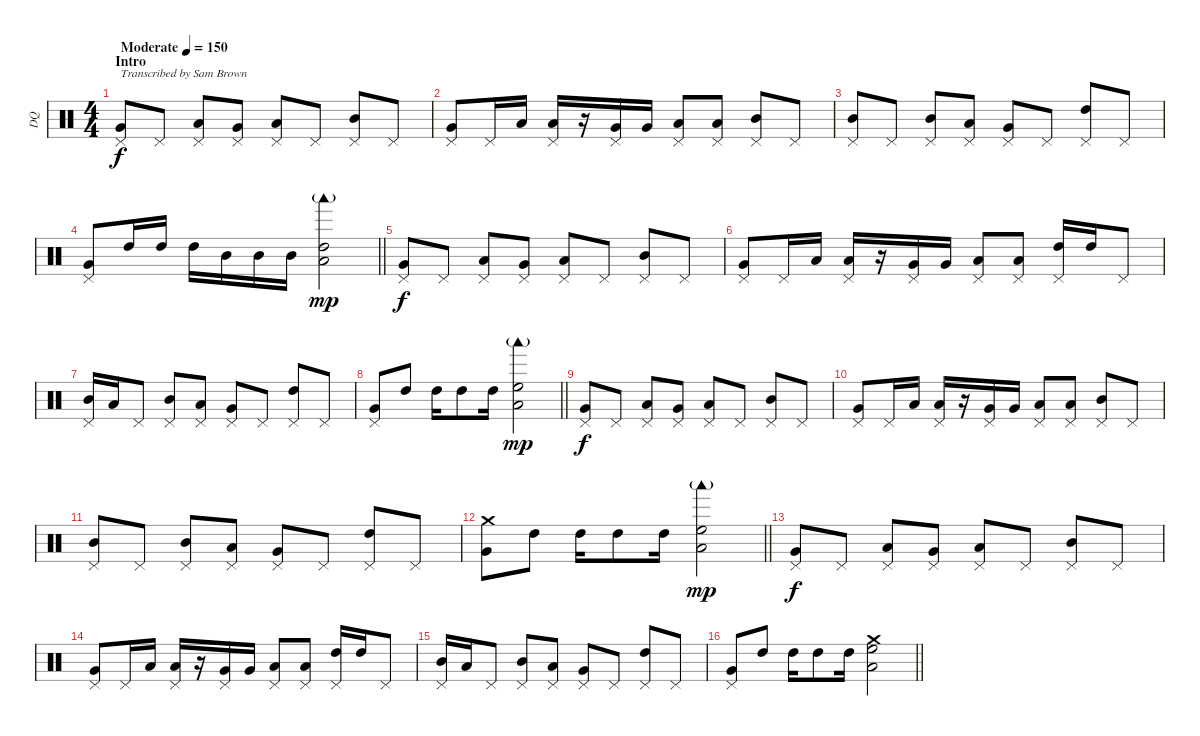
\track ("DQ" "DQ") {instrument percussion}
\staff {score}
\articulation defaults
\ts (4 4)
\section ("" "Intro")
\tempo (150 "Moderate")
\clef neutral
\ks c
("Very Low Tom (hit)" "Pedal Hi-Hat (hit)").8{txt "Transcribed by Sam Brown" dy f} "Pedal Hi-Hat (hit)".8 ("Low Tom (hit)" "Pedal Hi-Hat (hit)").8 ("Very Low Tom (hit)" "Pedal Hi-Hat (hit)").8 ("Low Floor Tom (hit)" "Pedal Hi-Hat (hit)").8 "Pedal Hi-Hat (hit)".8 ("Mid Tom (hit)" "Pedal Hi-Hat (hit)").8 "Pedal Hi-Hat (hit)".8 |
("Very Low Tom (hit)" "Pedal Hi-Hat (hit)").8 "Pedal Hi-Hat (hit)".16 "Low Tom (hit)".16 ("Low Tom (hit)" "Pedal Hi-Hat (hit)").16 r.16 ("Very Low Tom (hit)" "Pedal Hi-Hat (hit)").16 "Very Low Tom (hit)".16 ("Low Floor Tom (hit)" "Pedal Hi-Hat (hit)").8 ("Low Floor Tom (hit)" "Pedal Hi-Hat (hit)").8 ("Mid Tom (hit)" "Pedal Hi-Hat (hit)").8 "Pedal Hi-Hat (hit)".8 |
("Mid Tom (hit)" "Pedal Hi-Hat (hit)").8 "Pedal Hi-Hat (hit)".8 ("Mid Tom (hit)" "Pedal Hi-Hat (hit)").8 ("Low Tom (hit)" "Pedal Hi-Hat (hit)").8 ("Very Low Tom (hit)" "Pedal Hi-Hat (hit)").8 "Pedal Hi-Hat (hit)".8 ("High Tom (hit)" "Pedal Hi-Hat (hit)").8 "Pedal Hi-Hat (hit)".8 |
\barLineRight lightlight
("Very Low Tom (hit)" "Pedal Hi-Hat (hit)").8 "High Tom (hit)".16 "High Tom (hit)".16 "High Tom (hit)".16 "Mid Tom (hit)".16 "Mid Tom (hit)".16 "Mid Tom (hit)".16 ("Low Floor Tom (hit)" "High Tom (hit)" "Woodblock low (hit)"{g}).2{dy mp} |
\section ("" "")
("Very Low Tom (hit)" "Pedal Hi-Hat (hit)").8{dy f} "Pedal Hi-Hat (hit)".8 ("Low Tom (hit)" "Pedal Hi-Hat (hit)").8 ("Very Low Tom (hit)" "Pedal Hi-Hat (hit)").8 ("Low Floor Tom (hit)" "Pedal Hi-Hat (hit)").8 "Pedal Hi-Hat (hit)".8 ("Mid Tom (hit)" "Pedal Hi-Hat (hit)").8 "Pedal Hi-Hat (hit)".8 |
("Very Low Tom (hit)" "Pedal Hi-Hat (hit)").8 "Pedal Hi-Hat (hit)".16 "Low Tom (hit)".16 ("Low Tom (hit)" "Pedal Hi-Hat (hit)").16 r.16 ("Very Low Tom (hit)" "Pedal Hi-Hat (hit)").16 "Very Low Tom (hit)".16 ("Low Floor Tom (hit)" "Pedal Hi-Hat (hit)").8 ("Low Floor Tom (hit)" "Pedal Hi-Hat (hit)").8 ("High Tom (hit)" "Pedal Hi-Hat (hit)").16 "High Tom (hit)".16 "Pedal Hi-Hat (hit)".8 |
("Mid Tom (hit)" "Pedal Hi-Hat (hit)").16 "Low Tom (hit)".16 "Pedal Hi-Hat (hit)".8 ("Mid Tom (hit)" "Pedal Hi-Hat (hit)").8 ("Low Tom (hit)" "Pedal Hi-Hat (hit)").8 ("Very Low Tom (hit)" "Pedal Hi-Hat (hit)").8 "Pedal Hi-Hat (hit)".8 ("High Tom (hit)" "Pedal Hi-Hat (hit)").8 "Pedal Hi-Hat (hit)".8 |
\barLineRight lightlight
("Very Low Tom (hit)" "Pedal Hi-Hat (hit)").8 "High Tom (hit)".8 "High Tom (hit)".16 "High Tom (hit)".8 "High Tom (hit)".16 ("Low Floor Tom (hit)" "High Floor Tom (hit)" "Woodblock low (hit)"{g}).2{dy mp} |
\section ("" "")
("Very Low Tom (hit)" "Pedal Hi-Hat (hit)").8{dy f} "Pedal Hi-Hat (hit)".8 ("Low Tom (hit)" "Pedal Hi-Hat (hit)").8 ("Very Low Tom (hit)" "Pedal Hi-Hat (hit)").8 ("Low Floor Tom (hit)" "Pedal Hi-Hat (hit)").8 "Pedal Hi-Hat (hit)".8 ("Mid Tom (hit)" "Pedal Hi-Hat (hit)").8 "Pedal Hi-Hat (hit)".8 |
("Very Low Tom (hit)" "Pedal Hi-Hat (hit)").8 "Pedal Hi-Hat (hit)".16 "Low Tom (hit)".16 ("Low Tom (hit)" "Pedal Hi-Hat (hit)").16 r.16 ("Very Low Tom (hit)" "Pedal Hi-Hat (hit)").16 "Very Low Tom (hit)".16 ("Low Floor Tom (hit)" "Pedal Hi-Hat (hit)").8 ("Low Floor Tom (hit)" "Pedal Hi-Hat (hit)").8 ("Mid Tom (hit)" "Pedal Hi-Hat (hit)").8 "Pedal Hi-Hat (hit)".8 |
("Mid Tom (hit)" "Pedal Hi-Hat (hit)").8 "Pedal Hi-Hat (hit)".8 ("Mid Tom (hit)" "Pedal Hi-Hat (hit)").8 ("Low Tom (hit)" "Pedal Hi-Hat (hit)").8 ("Very Low Tom (hit)" "Pedal Hi-Hat (hit)").8 "Pedal Hi-Hat (hit)".8 ("High Tom (hit)" "Pedal Hi-Hat (hit)").8 "Pedal Hi-Hat (hit)".8 |
\barLineRight lightlight
("Very Low Tom (hit)" "Crash medium (hit)").8 "High Tom (hit)".8 "High Tom (hit)".16 "High Tom (hit)".8 "High Tom (hit)".16 ("Low Floor Tom (hit)" "High Floor Tom (hit)" "Woodblock low (hit)"{g}).2{dy mp} |
\section ("" "")
("Very Low Tom (hit)" "Pedal Hi-Hat (hit)").8{dy f} "Pedal Hi-Hat (hit)".8 ("Low Tom (hit)" "Pedal Hi-Hat (hit)").8 ("Very Low Tom (hit)" "Pedal Hi-Hat (hit)").8 ("Low Floor Tom (hit)" "Pedal Hi-Hat (hit)").8 "Pedal Hi-Hat (hit)".8 ("Mid Tom (hit)" "Pedal Hi-Hat (hit)").8 "Pedal Hi-Hat (hit)".8 |
("Very Low Tom (hit)" "Pedal Hi-Hat (hit)").8 "Pedal Hi-Hat (hit)".16 "Low Tom (hit)".16 ("Low Tom (hit)" "Pedal Hi-Hat (hit)").16 r.16 ("Very Low Tom (hit)" "Pedal Hi-Hat (hit)").16 "Very Low Tom (hit)".16 ("Low Floor Tom (hit)" "Pedal Hi-Hat (hit)").8 ("Low Floor Tom (hit)" "Pedal Hi-Hat (hit)").8 ("High Tom (hit)" "Pedal Hi-Hat (hit)").16 "High Tom (hit)".16 "Pedal Hi-Hat (hit)".8 |
("Mid Tom (hit)" "Pedal Hi-Hat (hit)").16 "Low Tom (hit)".16 "Pedal Hi-Hat (hit)".8 ("Mid Tom (hit)" "Pedal Hi-Hat (hit)").8 ("Low Tom (hit)" "Pedal Hi-Hat (hit)").8 ("Very Low Tom (hit)" "Pedal Hi-Hat (hit)").8 "Pedal Hi-Hat (hit)".8 ("High Tom (hit)" "Pedal Hi-Hat (hit)").8 "Pedal Hi-Hat (hit)".8 |
\barLineRight lightlight
("Very Low Tom (hit)" "Pedal Hi-Hat (hit)").8 "High Tom (hit)".8 "High Tom (hit)".16 "High Tom (hit)".8 "High Tom (hit)".16 ("Low Floor Tom (hit)" "High Floor Tom (hit)" "Crash medium (hit)").2
